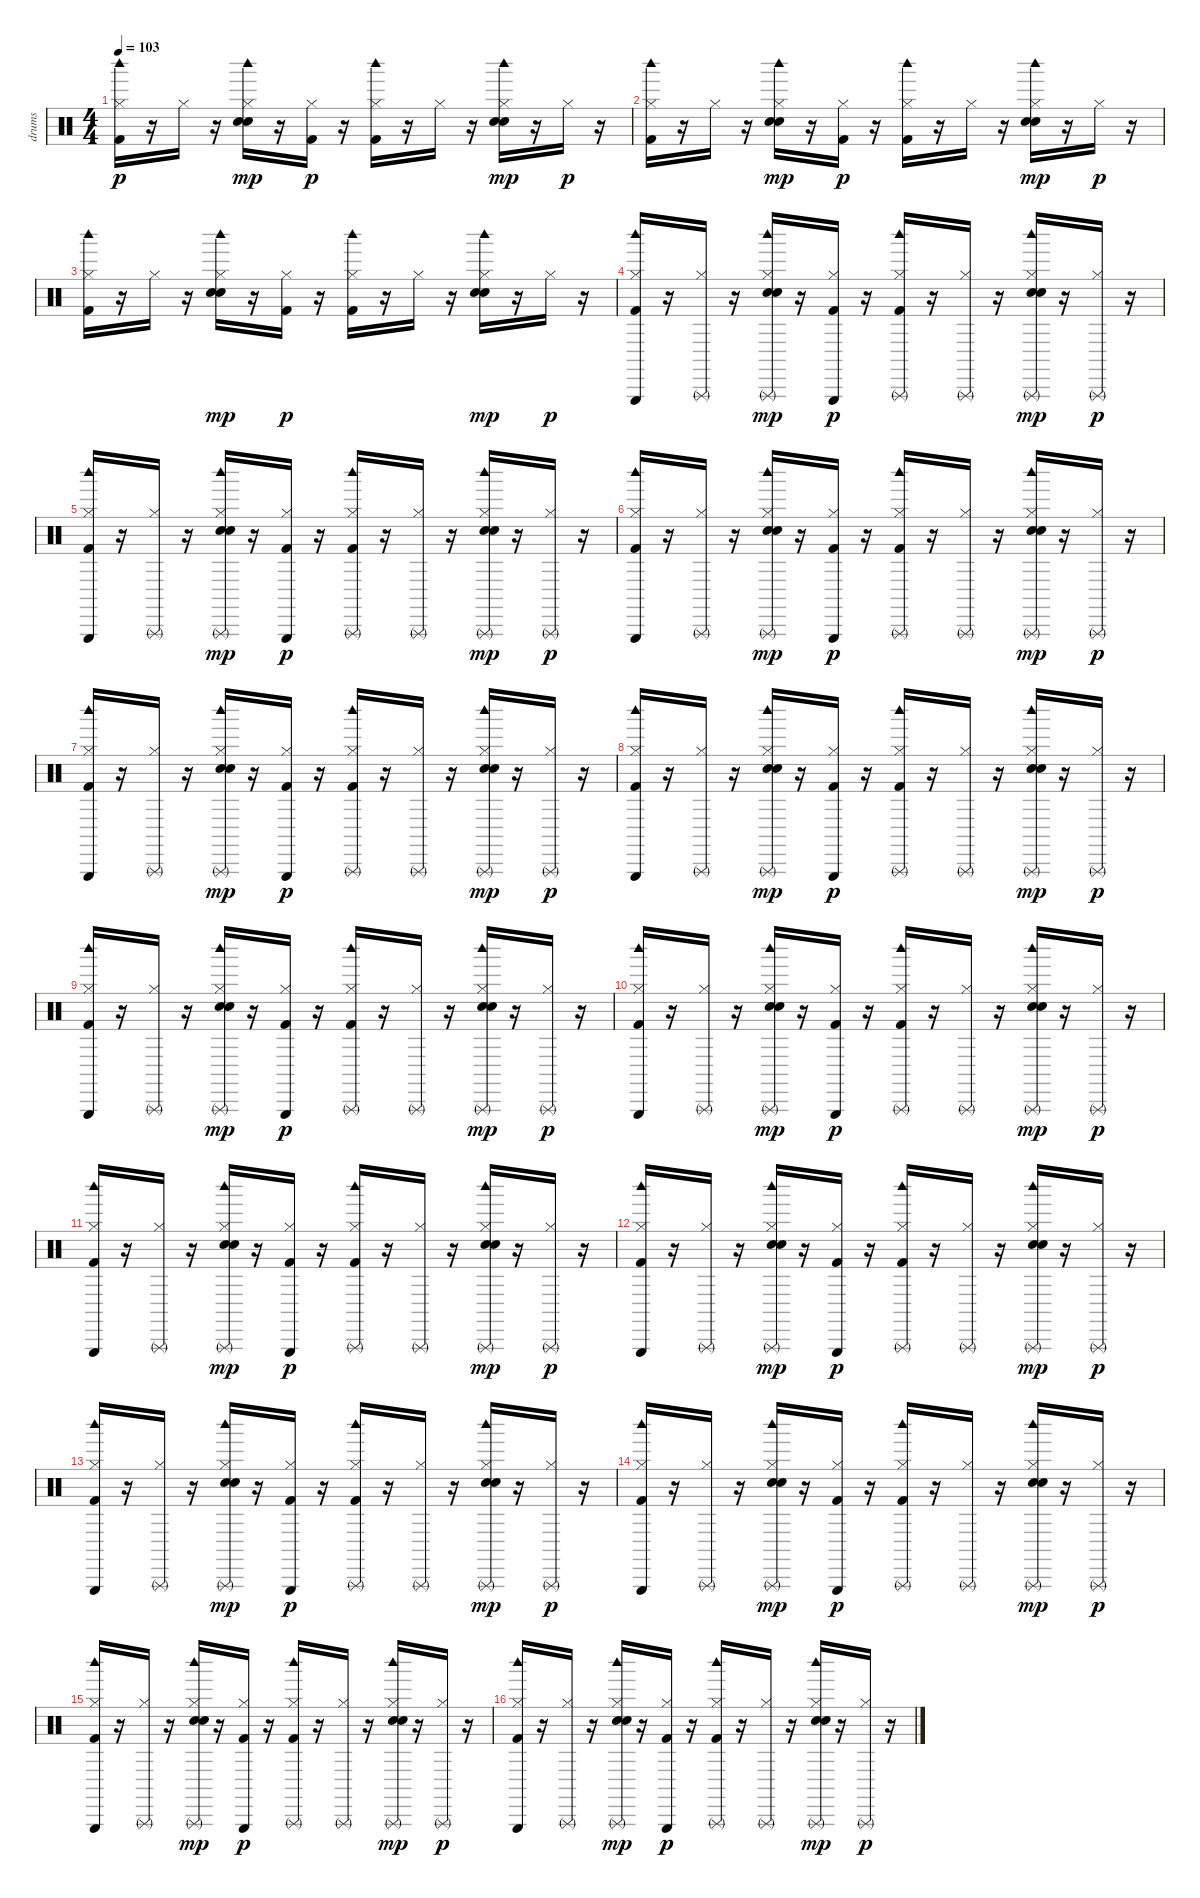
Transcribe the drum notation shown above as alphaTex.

\track ("drums" "drums") {instrument percussion}
\staff {score}
\articulation defaults
\ts (4 4)
\tempo 103
\clef neutral
\ks c
("Hi-Hat (closed)" "Woodblock high (hit)" "Kick (hit) 2").16{dy p} r.16 "Hi-Hat (closed)".16 r.16 ("Hi-Hat (closed)" "Electric Snare (hit)" "Snare (hit) 2" "Woodblock high (hit)").16{dy mp} r.16 ("Hi-Hat (closed)" "Kick (hit) 2").16{dy p} r.16 ("Hi-Hat (closed)" "Woodblock high (hit)" "Kick (hit) 2").16 r.16 "Hi-Hat (closed)".16 r.16 ("Hi-Hat (closed)" "Electric Snare (hit)" "Snare (hit) 2" "Woodblock high (hit)").16{dy mp} r.16 "Hi-Hat (closed)".16{dy p} r.16 |
("Hi-Hat (closed)" "Woodblock high (hit)" "Kick (hit) 2").16 r.16 "Hi-Hat (closed)".16 r.16 ("Hi-Hat (closed)" "Electric Snare (hit)" "Snare (hit) 2" "Woodblock high (hit)").16{dy mp} r.16 ("Hi-Hat (closed)" "Kick (hit) 2").16{dy p} r.16 ("Hi-Hat (closed)" "Woodblock high (hit)" "Kick (hit) 2").16 r.16 "Hi-Hat (closed)".16 r.16 ("Hi-Hat (closed)" "Electric Snare (hit)" "Snare (hit) 2" "Woodblock high (hit)").16{dy mp} r.16 "Hi-Hat (closed)".16{dy p} r.16 |
("Hi-Hat (closed)" "Woodblock high (hit)" "Kick (hit) 2").16 r.16 "Hi-Hat (closed)".16 r.16 ("Hi-Hat (closed)" "Electric Snare (hit)" "Snare (hit) 2" "Woodblock high (hit)").16{dy mp} r.16 ("Hi-Hat (closed)" "Kick (hit) 2").16{dy p} r.16 ("Hi-Hat (closed)" "Woodblock high (hit)" "Kick (hit) 2").16 r.16 "Hi-Hat (closed)".16 r.16 ("Hi-Hat (closed)" "Electric Snare (hit)" "Snare (hit) 2" "Woodblock high (hit)").16{dy mp} r.16 "Hi-Hat (closed)".16{dy p} r.16 |
("Hi-Hat (closed)" "Triangle (hit)" "Woodblock high (hit)" "Kick (hit) 2").16 r.16 ("Hi-Hat (closed)" "Triangle (rnute)").16 r.16 ("Hi-Hat (closed)" "Triangle (rnute)" "Electric Snare (hit)" "Snare (hit) 2" "Woodblock high (hit)").16{dy mp} r.16 ("Hi-Hat (closed)" "Triangle (hit)" "Kick (hit) 2").16{dy p} r.16 ("Hi-Hat (closed)" "Triangle (rnute)" "Woodblock high (hit)" "Kick (hit) 2").16 r.16 ("Hi-Hat (closed)" "Triangle (rnute)").16 r.16 ("Hi-Hat (closed)" "Triangle (rnute)" "Electric Snare (hit)" "Snare (hit) 2" "Woodblock high (hit)").16{dy mp} r.16 ("Hi-Hat (closed)" "Triangle (rnute)").16{dy p} r.16 |
("Hi-Hat (closed)" "Triangle (hit)" "Woodblock high (hit)" "Kick (hit) 2").16 r.16 ("Hi-Hat (closed)" "Triangle (rnute)").16 r.16 ("Hi-Hat (closed)" "Triangle (rnute)" "Electric Snare (hit)" "Snare (hit) 2" "Woodblock high (hit)").16{dy mp} r.16 ("Hi-Hat (closed)" "Triangle (hit)" "Kick (hit) 2").16{dy p} r.16 ("Hi-Hat (closed)" "Triangle (rnute)" "Woodblock high (hit)" "Kick (hit) 2").16 r.16 ("Hi-Hat (closed)" "Triangle (rnute)").16 r.16 ("Hi-Hat (closed)" "Triangle (rnute)" "Electric Snare (hit)" "Snare (hit) 2" "Woodblock high (hit)").16{dy mp} r.16 ("Hi-Hat (closed)" "Triangle (rnute)").16{dy p} r.16 |
("Hi-Hat (closed)" "Triangle (hit)" "Woodblock high (hit)" "Kick (hit) 2").16 r.16 ("Hi-Hat (closed)" "Triangle (rnute)").16 r.16 ("Hi-Hat (closed)" "Triangle (rnute)" "Electric Snare (hit)" "Snare (hit) 2" "Woodblock high (hit)").16{dy mp} r.16 ("Hi-Hat (closed)" "Triangle (hit)" "Kick (hit) 2").16{dy p} r.16 ("Hi-Hat (closed)" "Triangle (rnute)" "Woodblock high (hit)" "Kick (hit) 2").16 r.16 ("Hi-Hat (closed)" "Triangle (rnute)").16 r.16 ("Hi-Hat (closed)" "Triangle (rnute)" "Electric Snare (hit)" "Snare (hit) 2" "Woodblock high (hit)").16{dy mp} r.16 ("Hi-Hat (closed)" "Triangle (rnute)").16{dy p} r.16 |
("Hi-Hat (closed)" "Triangle (hit)" "Woodblock high (hit)" "Kick (hit) 2").16 r.16 ("Hi-Hat (closed)" "Triangle (rnute)").16 r.16 ("Hi-Hat (closed)" "Triangle (rnute)" "Electric Snare (hit)" "Snare (hit) 2" "Woodblock high (hit)").16{dy mp} r.16 ("Hi-Hat (closed)" "Triangle (hit)" "Kick (hit) 2").16{dy p} r.16 ("Hi-Hat (closed)" "Triangle (rnute)" "Woodblock high (hit)" "Kick (hit) 2").16 r.16 ("Hi-Hat (closed)" "Triangle (rnute)").16 r.16 ("Hi-Hat (closed)" "Triangle (rnute)" "Electric Snare (hit)" "Snare (hit) 2" "Woodblock high (hit)").16{dy mp} r.16 ("Hi-Hat (closed)" "Triangle (rnute)").16{dy p} r.16 |
("Hi-Hat (closed)" "Triangle (hit)" "Woodblock high (hit)" "Kick (hit) 2").16 r.16 ("Hi-Hat (closed)" "Triangle (rnute)").16 r.16 ("Hi-Hat (closed)" "Triangle (rnute)" "Electric Snare (hit)" "Snare (hit) 2" "Woodblock high (hit)").16{dy mp} r.16 ("Hi-Hat (closed)" "Triangle (hit)" "Kick (hit) 2").16{dy p} r.16 ("Hi-Hat (closed)" "Triangle (rnute)" "Woodblock high (hit)" "Kick (hit) 2").16 r.16 ("Hi-Hat (closed)" "Triangle (rnute)").16 r.16 ("Hi-Hat (closed)" "Triangle (rnute)" "Electric Snare (hit)" "Snare (hit) 2" "Woodblock high (hit)").16{dy mp} r.16 ("Hi-Hat (closed)" "Triangle (rnute)").16{dy p} r.16 |
("Hi-Hat (closed)" "Triangle (hit)" "Woodblock high (hit)" "Kick (hit) 2").16 r.16 ("Hi-Hat (closed)" "Triangle (rnute)").16 r.16 ("Hi-Hat (closed)" "Triangle (rnute)" "Electric Snare (hit)" "Snare (hit) 2" "Woodblock high (hit)").16{dy mp} r.16 ("Hi-Hat (closed)" "Triangle (hit)" "Kick (hit) 2").16{dy p} r.16 ("Hi-Hat (closed)" "Triangle (rnute)" "Woodblock high (hit)" "Kick (hit) 2").16 r.16 ("Hi-Hat (closed)" "Triangle (rnute)").16 r.16 ("Hi-Hat (closed)" "Triangle (rnute)" "Electric Snare (hit)" "Snare (hit) 2" "Woodblock high (hit)").16{dy mp} r.16 ("Hi-Hat (closed)" "Triangle (rnute)").16{dy p} r.16 |
("Hi-Hat (closed)" "Triangle (hit)" "Woodblock high (hit)" "Kick (hit) 2").16 r.16 ("Hi-Hat (closed)" "Triangle (rnute)").16 r.16 ("Hi-Hat (closed)" "Triangle (rnute)" "Electric Snare (hit)" "Snare (hit) 2" "Woodblock high (hit)").16{dy mp} r.16 ("Hi-Hat (closed)" "Triangle (hit)" "Kick (hit) 2").16{dy p} r.16 ("Hi-Hat (closed)" "Triangle (rnute)" "Woodblock high (hit)" "Kick (hit) 2").16 r.16 ("Hi-Hat (closed)" "Triangle (rnute)").16 r.16 ("Hi-Hat (closed)" "Triangle (rnute)" "Electric Snare (hit)" "Snare (hit) 2" "Woodblock high (hit)").16{dy mp} r.16 ("Hi-Hat (closed)" "Triangle (rnute)").16{dy p} r.16 |
("Hi-Hat (closed)" "Triangle (hit)" "Woodblock high (hit)" "Kick (hit) 2").16 r.16 ("Hi-Hat (closed)" "Triangle (rnute)").16 r.16 ("Hi-Hat (closed)" "Triangle (rnute)" "Electric Snare (hit)" "Snare (hit) 2" "Woodblock high (hit)").16{dy mp} r.16 ("Hi-Hat (closed)" "Triangle (hit)" "Kick (hit) 2").16{dy p} r.16 ("Hi-Hat (closed)" "Triangle (rnute)" "Woodblock high (hit)" "Kick (hit) 2").16 r.16 ("Hi-Hat (closed)" "Triangle (rnute)").16 r.16 ("Hi-Hat (closed)" "Triangle (rnute)" "Electric Snare (hit)" "Snare (hit) 2" "Woodblock high (hit)").16{dy mp} r.16 ("Hi-Hat (closed)" "Triangle (rnute)").16{dy p} r.16 |
("Hi-Hat (closed)" "Triangle (hit)" "Woodblock high (hit)" "Kick (hit) 2").16 r.16 ("Hi-Hat (closed)" "Triangle (rnute)").16 r.16 ("Hi-Hat (closed)" "Triangle (rnute)" "Electric Snare (hit)" "Snare (hit) 2" "Woodblock high (hit)").16{dy mp} r.16 ("Hi-Hat (closed)" "Triangle (hit)" "Kick (hit) 2").16{dy p} r.16 ("Hi-Hat (closed)" "Triangle (rnute)" "Woodblock high (hit)" "Kick (hit) 2").16 r.16 ("Hi-Hat (closed)" "Triangle (rnute)").16 r.16 ("Hi-Hat (closed)" "Triangle (rnute)" "Electric Snare (hit)" "Snare (hit) 2" "Woodblock high (hit)").16{dy mp} r.16 ("Hi-Hat (closed)" "Triangle (rnute)").16{dy p} r.16 |
("Hi-Hat (closed)" "Triangle (hit)" "Woodblock high (hit)" "Kick (hit) 2").16 r.16 ("Hi-Hat (closed)" "Triangle (rnute)").16 r.16 ("Hi-Hat (closed)" "Triangle (rnute)" "Electric Snare (hit)" "Snare (hit) 2" "Woodblock high (hit)").16{dy mp} r.16 ("Hi-Hat (closed)" "Triangle (hit)" "Kick (hit) 2").16{dy p} r.16 ("Hi-Hat (closed)" "Triangle (rnute)" "Woodblock high (hit)" "Kick (hit) 2").16 r.16 ("Hi-Hat (closed)" "Triangle (rnute)").16 r.16 ("Hi-Hat (closed)" "Triangle (rnute)" "Electric Snare (hit)" "Snare (hit) 2" "Woodblock high (hit)").16{dy mp} r.16 ("Hi-Hat (closed)" "Triangle (rnute)").16{dy p} r.16 |
("Hi-Hat (closed)" "Triangle (hit)" "Woodblock high (hit)" "Kick (hit) 2").16 r.16 ("Hi-Hat (closed)" "Triangle (rnute)").16 r.16 ("Hi-Hat (closed)" "Triangle (rnute)" "Electric Snare (hit)" "Snare (hit) 2" "Woodblock high (hit)").16{dy mp} r.16 ("Hi-Hat (closed)" "Triangle (hit)" "Kick (hit) 2").16{dy p} r.16 ("Hi-Hat (closed)" "Triangle (rnute)" "Woodblock high (hit)" "Kick (hit) 2").16 r.16 ("Hi-Hat (closed)" "Triangle (rnute)").16 r.16 ("Hi-Hat (closed)" "Triangle (rnute)" "Electric Snare (hit)" "Snare (hit) 2" "Woodblock high (hit)").16{dy mp} r.16 ("Hi-Hat (closed)" "Triangle (rnute)").16{dy p} r.16 |
("Hi-Hat (closed)" "Triangle (hit)" "Woodblock high (hit)" "Kick (hit) 2").16 r.16 ("Hi-Hat (closed)" "Triangle (rnute)").16 r.16 ("Hi-Hat (closed)" "Triangle (rnute)" "Electric Snare (hit)" "Snare (hit) 2" "Woodblock high (hit)").16{dy mp} r.16 ("Hi-Hat (closed)" "Triangle (hit)" "Kick (hit) 2").16{dy p} r.16 ("Hi-Hat (closed)" "Triangle (rnute)" "Woodblock high (hit)" "Kick (hit) 2").16 r.16 ("Hi-Hat (closed)" "Triangle (rnute)").16 r.16 ("Hi-Hat (closed)" "Triangle (rnute)" "Electric Snare (hit)" "Snare (hit) 2" "Woodblock high (hit)").16{dy mp} r.16 ("Hi-Hat (closed)" "Triangle (rnute)").16{dy p} r.16 |
("Hi-Hat (closed)" "Triangle (hit)" "Woodblock high (hit)" "Kick (hit) 2").16 r.16 ("Hi-Hat (closed)" "Triangle (rnute)").16 r.16 ("Hi-Hat (closed)" "Triangle (rnute)" "Electric Snare (hit)" "Snare (hit) 2" "Woodblock high (hit)").16{dy mp} r.16 ("Hi-Hat (closed)" "Triangle (hit)" "Kick (hit) 2").16{dy p} r.16 ("Hi-Hat (closed)" "Triangle (rnute)" "Woodblock high (hit)" "Kick (hit) 2").16 r.16 ("Hi-Hat (closed)" "Triangle (rnute)").16 r.16 ("Hi-Hat (closed)" "Triangle (rnute)" "Electric Snare (hit)" "Snare (hit) 2" "Woodblock high (hit)").16{dy mp} r.16 ("Hi-Hat (closed)" "Triangle (rnute)").16{dy p} r.16
